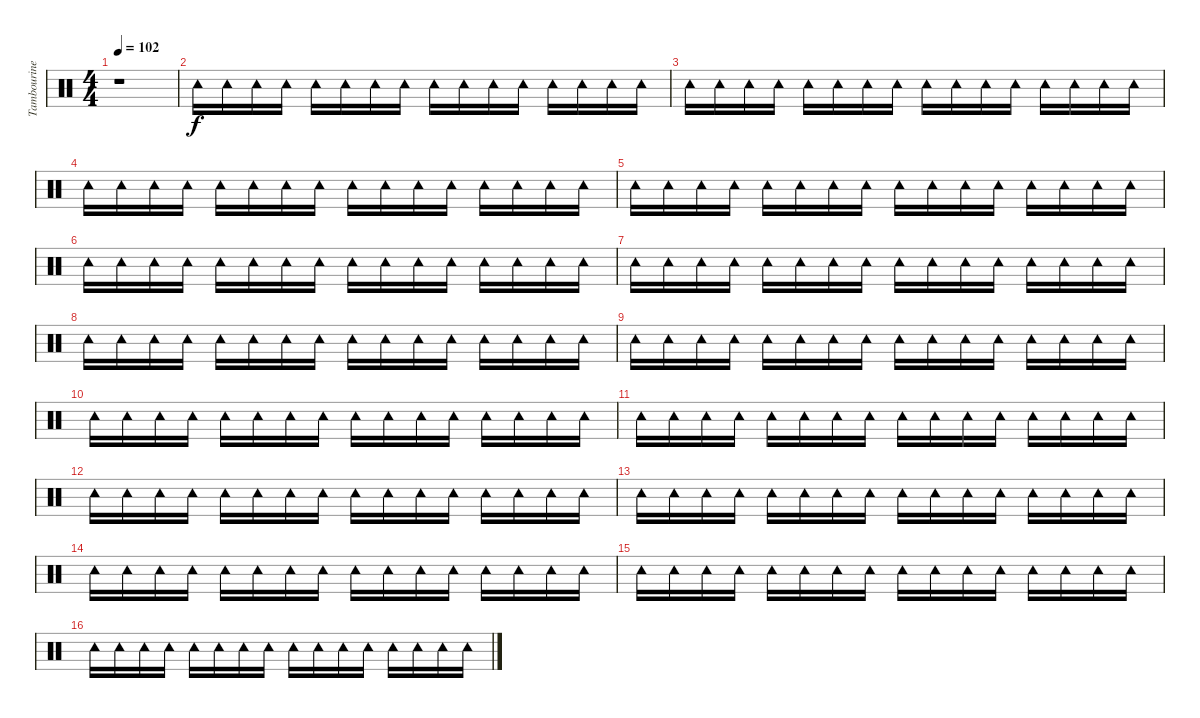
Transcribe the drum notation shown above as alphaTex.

\track ("Tambourine" "Tambourine") {instrument percussion}
\staff {score}
\articulation defaults
\ts (4 4)
\tempo 102
\clef neutral
\ks c
r.1{dy f} |
"Tambourine (hit)".16 "Tambourine (hit)".16 "Tambourine (hit)".16 "Tambourine (hit)".16 "Tambourine (hit)".16 "Tambourine (hit)".16 "Tambourine (hit)".16 "Tambourine (hit)".16 "Tambourine (hit)".16 "Tambourine (hit)".16 "Tambourine (hit)".16 "Tambourine (hit)".16 "Tambourine (hit)".16 "Tambourine (hit)".16 "Tambourine (hit)".16 "Tambourine (hit)".16 |
"Tambourine (hit)".16 "Tambourine (hit)".16 "Tambourine (hit)".16 "Tambourine (hit)".16 "Tambourine (hit)".16 "Tambourine (hit)".16 "Tambourine (hit)".16 "Tambourine (hit)".16 "Tambourine (hit)".16 "Tambourine (hit)".16 "Tambourine (hit)".16 "Tambourine (hit)".16 "Tambourine (hit)".16 "Tambourine (hit)".16 "Tambourine (hit)".16 "Tambourine (hit)".16 |
"Tambourine (hit)".16 "Tambourine (hit)".16 "Tambourine (hit)".16 "Tambourine (hit)".16 "Tambourine (hit)".16 "Tambourine (hit)".16 "Tambourine (hit)".16 "Tambourine (hit)".16 "Tambourine (hit)".16 "Tambourine (hit)".16 "Tambourine (hit)".16 "Tambourine (hit)".16 "Tambourine (hit)".16 "Tambourine (hit)".16 "Tambourine (hit)".16 "Tambourine (hit)".16 |
"Tambourine (hit)".16 "Tambourine (hit)".16 "Tambourine (hit)".16 "Tambourine (hit)".16 "Tambourine (hit)".16 "Tambourine (hit)".16 "Tambourine (hit)".16 "Tambourine (hit)".16 "Tambourine (hit)".16 "Tambourine (hit)".16 "Tambourine (hit)".16 "Tambourine (hit)".16 "Tambourine (hit)".16 "Tambourine (hit)".16 "Tambourine (hit)".16 "Tambourine (hit)".16 |
"Tambourine (hit)".16 "Tambourine (hit)".16 "Tambourine (hit)".16 "Tambourine (hit)".16 "Tambourine (hit)".16 "Tambourine (hit)".16 "Tambourine (hit)".16 "Tambourine (hit)".16 "Tambourine (hit)".16 "Tambourine (hit)".16 "Tambourine (hit)".16 "Tambourine (hit)".16 "Tambourine (hit)".16 "Tambourine (hit)".16 "Tambourine (hit)".16 "Tambourine (hit)".16 |
"Tambourine (hit)".16 "Tambourine (hit)".16 "Tambourine (hit)".16 "Tambourine (hit)".16 "Tambourine (hit)".16 "Tambourine (hit)".16 "Tambourine (hit)".16 "Tambourine (hit)".16 "Tambourine (hit)".16 "Tambourine (hit)".16 "Tambourine (hit)".16 "Tambourine (hit)".16 "Tambourine (hit)".16 "Tambourine (hit)".16 "Tambourine (hit)".16 "Tambourine (hit)".16 |
"Tambourine (hit)".16 "Tambourine (hit)".16 "Tambourine (hit)".16 "Tambourine (hit)".16 "Tambourine (hit)".16 "Tambourine (hit)".16 "Tambourine (hit)".16 "Tambourine (hit)".16 "Tambourine (hit)".16 "Tambourine (hit)".16 "Tambourine (hit)".16 "Tambourine (hit)".16 "Tambourine (hit)".16 "Tambourine (hit)".16 "Tambourine (hit)".16 "Tambourine (hit)".16 |
"Tambourine (hit)".16 "Tambourine (hit)".16 "Tambourine (hit)".16 "Tambourine (hit)".16 "Tambourine (hit)".16 "Tambourine (hit)".16 "Tambourine (hit)".16 "Tambourine (hit)".16 "Tambourine (hit)".16 "Tambourine (hit)".16 "Tambourine (hit)".16 "Tambourine (hit)".16 "Tambourine (hit)".16 "Tambourine (hit)".16 "Tambourine (hit)".16 "Tambourine (hit)".16 |
"Tambourine (hit)".16 "Tambourine (hit)".16 "Tambourine (hit)".16 "Tambourine (hit)".16 "Tambourine (hit)".16 "Tambourine (hit)".16 "Tambourine (hit)".16 "Tambourine (hit)".16 "Tambourine (hit)".16 "Tambourine (hit)".16 "Tambourine (hit)".16 "Tambourine (hit)".16 "Tambourine (hit)".16 "Tambourine (hit)".16 "Tambourine (hit)".16 "Tambourine (hit)".16 |
"Tambourine (hit)".16 "Tambourine (hit)".16 "Tambourine (hit)".16 "Tambourine (hit)".16 "Tambourine (hit)".16 "Tambourine (hit)".16 "Tambourine (hit)".16 "Tambourine (hit)".16 "Tambourine (hit)".16 "Tambourine (hit)".16 "Tambourine (hit)".16 "Tambourine (hit)".16 "Tambourine (hit)".16 "Tambourine (hit)".16 "Tambourine (hit)".16 "Tambourine (hit)".16 |
"Tambourine (hit)".16 "Tambourine (hit)".16 "Tambourine (hit)".16 "Tambourine (hit)".16 "Tambourine (hit)".16 "Tambourine (hit)".16 "Tambourine (hit)".16 "Tambourine (hit)".16 "Tambourine (hit)".16 "Tambourine (hit)".16 "Tambourine (hit)".16 "Tambourine (hit)".16 "Tambourine (hit)".16 "Tambourine (hit)".16 "Tambourine (hit)".16 "Tambourine (hit)".16 |
"Tambourine (hit)".16 "Tambourine (hit)".16 "Tambourine (hit)".16 "Tambourine (hit)".16 "Tambourine (hit)".16 "Tambourine (hit)".16 "Tambourine (hit)".16 "Tambourine (hit)".16 "Tambourine (hit)".16 "Tambourine (hit)".16 "Tambourine (hit)".16 "Tambourine (hit)".16 "Tambourine (hit)".16 "Tambourine (hit)".16 "Tambourine (hit)".16 "Tambourine (hit)".16 |
"Tambourine (hit)".16 "Tambourine (hit)".16 "Tambourine (hit)".16 "Tambourine (hit)".16 "Tambourine (hit)".16 "Tambourine (hit)".16 "Tambourine (hit)".16 "Tambourine (hit)".16 "Tambourine (hit)".16 "Tambourine (hit)".16 "Tambourine (hit)".16 "Tambourine (hit)".16 "Tambourine (hit)".16 "Tambourine (hit)".16 "Tambourine (hit)".16 "Tambourine (hit)".16 |
"Tambourine (hit)".16 "Tambourine (hit)".16 "Tambourine (hit)".16 "Tambourine (hit)".16 "Tambourine (hit)".16 "Tambourine (hit)".16 "Tambourine (hit)".16 "Tambourine (hit)".16 "Tambourine (hit)".16 "Tambourine (hit)".16 "Tambourine (hit)".16 "Tambourine (hit)".16 "Tambourine (hit)".16 "Tambourine (hit)".16 "Tambourine (hit)".16 "Tambourine (hit)".16 |
"Tambourine (hit)".16 "Tambourine (hit)".16 "Tambourine (hit)".16 "Tambourine (hit)".16 "Tambourine (hit)".16 "Tambourine (hit)".16 "Tambourine (hit)".16 "Tambourine (hit)".16 "Tambourine (hit)".16 "Tambourine (hit)".16 "Tambourine (hit)".16 "Tambourine (hit)".16 "Tambourine (hit)".16 "Tambourine (hit)".16 "Tambourine (hit)".16 "Tambourine (hit)".16
